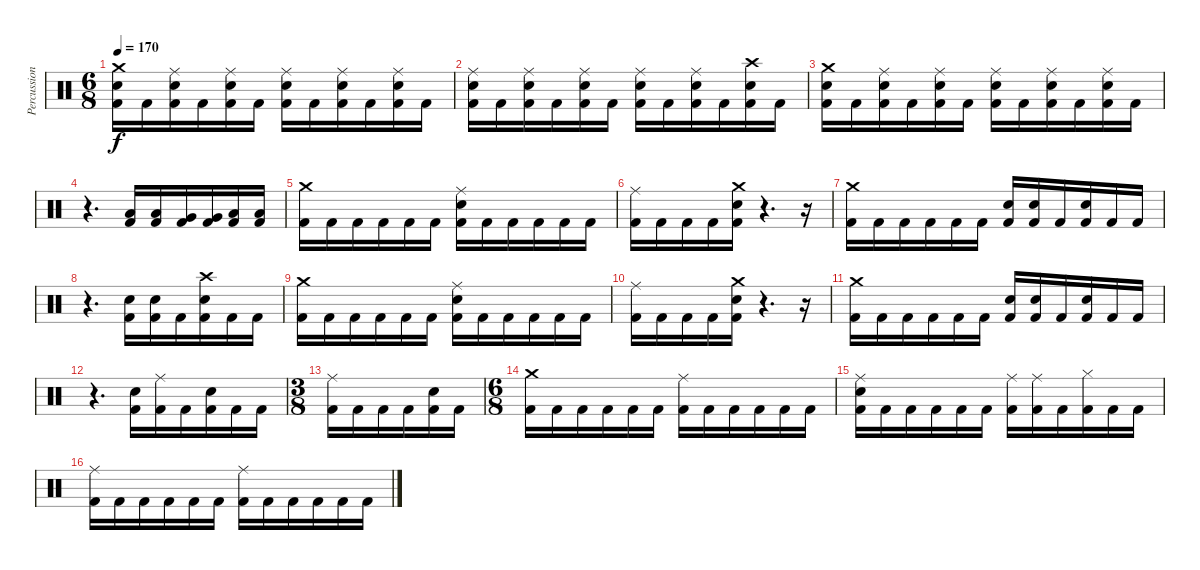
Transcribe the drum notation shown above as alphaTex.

\track ("Percussions" "Percussion") {instrument percussion}
\staff {score}
\articulation defaults
\ts (6 8)
\tempo 170
\clef neutral
\ks c
("Crash medium (hit)" "Electric Snare (hit)" "Kick (hit) 2").16{dy f} "Kick (hit) 2".16 ("Ride (middle)" "Electric Snare (hit)" "Kick (hit) 2").16 "Kick (hit) 2".16 ("Ride (middle)" "Electric Snare (hit)" "Kick (hit) 2").16 "Kick (hit) 2".16 ("Ride (middle)" "Electric Snare (hit)" "Kick (hit) 2").16 "Kick (hit) 2".16 ("Ride (middle)" "Electric Snare (hit)" "Kick (hit) 2").16 "Kick (hit) 2".16 ("Ride (middle)" "Electric Snare (hit)" "Kick (hit) 2").16 "Kick (hit) 2".16 |
("Ride (middle)" "Electric Snare (hit)" "Kick (hit) 2").16 "Kick (hit) 2".16 ("Ride (middle)" "Electric Snare (hit)" "Kick (hit) 2").16 "Kick (hit) 2".16 ("Ride (middle)" "Electric Snare (hit)" "Kick (hit) 2").16 "Kick (hit) 2".16 ("Ride (middle)" "Electric Snare (hit)" "Kick (hit) 2").16 "Kick (hit) 2".16 ("Ride (middle)" "Electric Snare (hit)" "Kick (hit) 2").16 "Kick (hit) 2".16 ("Crash high (hit)" "Electric Snare (hit)" "Kick (hit) 2").16 "Kick (hit) 2".16 |
("Crash medium (hit)" "Electric Snare (hit)" "Kick (hit) 2").16 "Kick (hit) 2".16 ("Ride (middle)" "Electric Snare (hit)" "Kick (hit) 2").16 "Kick (hit) 2".16 ("Ride (middle)" "Electric Snare (hit)" "Kick (hit) 2").16 "Kick (hit) 2".16 ("Ride (middle)" "Electric Snare (hit)" "Kick (hit) 2").16 "Kick (hit) 2".16 ("Ride (middle)" "Electric Snare (hit)" "Kick (hit) 2").16 "Kick (hit) 2".16 ("Ride (middle)" "Electric Snare (hit)" "Kick (hit) 2").16 "Kick (hit) 2".16 |
r.4{d} ("Low Tom (hit)" "Kick (hit) 2").16 ("Low Tom (hit)" "Kick (hit) 2").16 ("Very Low Tom (hit)" "Kick (hit) 2").16 ("Very Low Tom (hit)" "Kick (hit) 2").16 ("Low Floor Tom (hit)" "Kick (hit) 2").16 ("Low Floor Tom (hit)" "Kick (hit) 2").16 |
("Crash medium (hit)" "Kick (hit) 2").16 "Kick (hit) 2".16 "Kick (hit) 2".16 "Kick (hit) 2".16 "Kick (hit) 2".16 "Kick (hit) 2".16 ("Ride (middle)" "Electric Snare (hit)" "Kick (hit) 2").16 "Kick (hit) 2".16 "Kick (hit) 2".16 "Kick (hit) 2".16 "Kick (hit) 2".16 "Kick (hit) 2".16 |
("Ride (middle)" "Kick (hit) 2").16 "Kick (hit) 2".16 "Kick (hit) 2".16 "Kick (hit) 2".16 ("Crash medium (hit)" "Electric Snare (hit)" "Kick (hit) 2").16 r.4{d} r.16 |
("Crash medium (hit)" "Kick (hit) 2").16 "Kick (hit) 2".16 "Kick (hit) 2".16 "Kick (hit) 2".16 "Kick (hit) 2".16 "Kick (hit) 2".16 ("Electric Snare (hit)" "Kick (hit) 2").16 ("Electric Snare (hit)" "Kick (hit) 2").16 "Kick (hit) 2".16 ("Electric Snare (hit)" "Kick (hit) 2").16 "Kick (hit) 2".16 "Kick (hit) 2".16 |
r.4{d} ("Electric Snare (hit)" "Kick (hit) 2").16 ("Electric Snare (hit)" "Kick (hit) 2").16 "Kick (hit) 2".16 ("Crash high (hit)" "Electric Snare (hit)" "Kick (hit) 2").16 "Kick (hit) 2".16 "Kick (hit) 2".16 |
("Crash medium (hit)" "Kick (hit) 2").16 "Kick (hit) 2".16 "Kick (hit) 2".16 "Kick (hit) 2".16 "Kick (hit) 2".16 "Kick (hit) 2".16 ("Ride (middle)" "Electric Snare (hit)" "Kick (hit) 2").16 "Kick (hit) 2".16 "Kick (hit) 2".16 "Kick (hit) 2".16 "Kick (hit) 2".16 "Kick (hit) 2".16 |
("Ride (middle)" "Kick (hit) 2").16 "Kick (hit) 2".16 "Kick (hit) 2".16 "Kick (hit) 2".16 ("Crash medium (hit)" "Electric Snare (hit)" "Kick (hit) 2").16 r.4{d} r.16 |
("Crash medium (hit)" "Kick (hit) 2").16 "Kick (hit) 2".16 "Kick (hit) 2".16 "Kick (hit) 2".16 "Kick (hit) 2".16 "Kick (hit) 2".16 ("Electric Snare (hit)" "Kick (hit) 2").16 ("Electric Snare (hit)" "Kick (hit) 2").16 "Kick (hit) 2".16 ("Electric Snare (hit)" "Kick (hit) 2").16 "Kick (hit) 2".16 "Kick (hit) 2".16 |
r.4{d} ("Electric Snare (hit)" "Kick (hit) 2").16 ("Ride (middle)" "Kick (hit) 2").16 "Kick (hit) 2".16 ("Electric Snare (hit)" "Kick (hit) 2").16 "Kick (hit) 2".16 "Kick (hit) 2".16 |
\ts (3 8)
("Ride (middle)" "Kick (hit) 2").16 "Kick (hit) 2".16 "Kick (hit) 2".16 "Kick (hit) 2".16 ("Electric Snare (hit)" "Kick (hit) 2").16 "Kick (hit) 2".16 |
\ts (6 8)
("Crash medium (hit)" "Kick (hit) 2").16 "Kick (hit) 2".16 "Kick (hit) 2".16 "Kick (hit) 2".16 "Kick (hit) 2".16 "Kick (hit) 2".16 ("Ride (middle)" "Kick (hit) 2").16 "Kick (hit) 2".16 "Kick (hit) 2".16 "Kick (hit) 2".16 "Kick (hit) 2".16 "Kick (hit) 2".16 |
("Ride (middle)" "Electric Snare (hit)" "Kick (hit) 2").16 "Kick (hit) 2".16 "Kick (hit) 2".16 "Kick (hit) 2".16 "Kick (hit) 2".16 "Kick (hit) 2".16 ("Ride (middle)" "Kick (hit) 2").16 ("Ride (middle)" "Kick (hit) 2").16 "Kick (hit) 2".16 ("Hi-Hat (closed)" "Kick (hit) 2").16 "Kick (hit) 2".16 "Kick (hit) 2".16 |
("Ride (middle)" "Kick (hit) 2").16 "Kick (hit) 2".16 "Kick (hit) 2".16 "Kick (hit) 2".16 "Kick (hit) 2".16 "Kick (hit) 2".16 ("Ride (middle)" "Kick (hit) 2").16 "Kick (hit) 2".16 "Kick (hit) 2".16 "Kick (hit) 2".16 "Kick (hit) 2".16 "Kick (hit) 2".16
